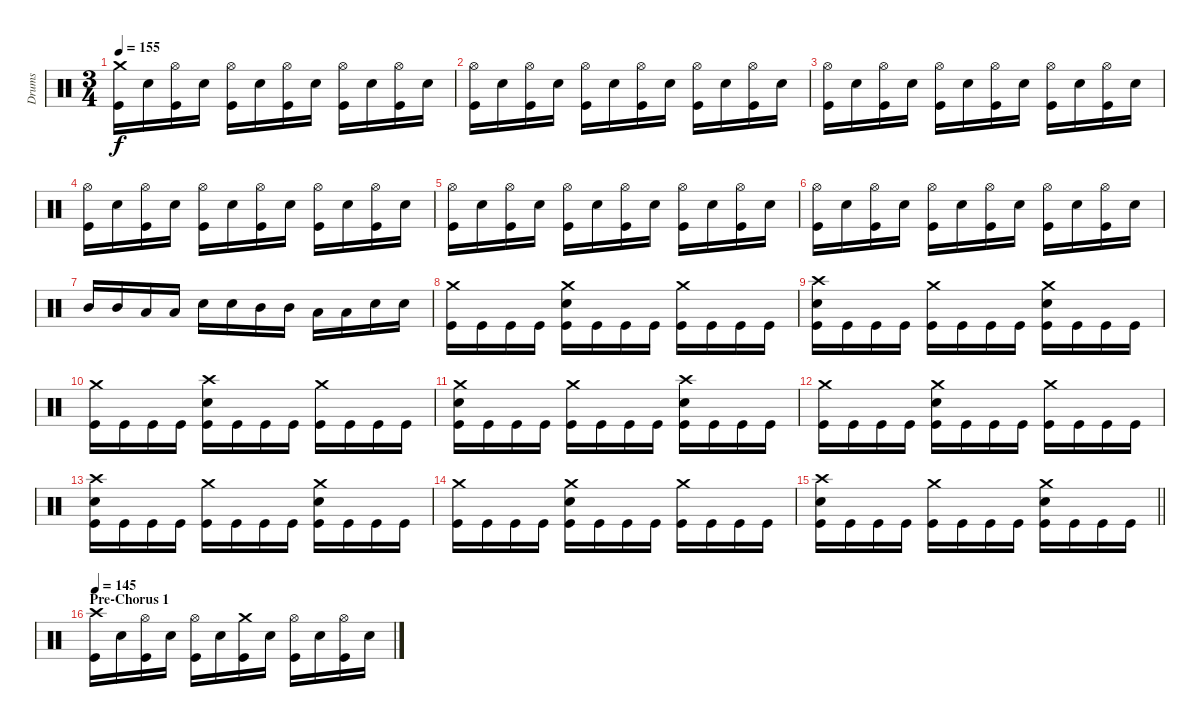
\track ("Drums" "Drums") {instrument percussion}
\staff {score}
\articulation defaults
\ts (3 4)
\tempo 155
\clef neutral
\ks c
("Crash medium (hit)" "Kick (hit)").16{dy f} "Snare (hit) 2".16 ("Hi-Hat (open)" "Kick (hit)").16 "Snare (hit) 2".16 ("Hi-Hat (open)" "Kick (hit)").16 "Snare (hit) 2".16 ("Hi-Hat (open)" "Kick (hit)").16 "Snare (hit) 2".16 ("Hi-Hat (open)" "Kick (hit)").16 "Snare (hit) 2".16 ("Hi-Hat (open)" "Kick (hit)").16 "Snare (hit) 2".16 |
("Hi-Hat (open)" "Kick (hit)").16 "Snare (hit) 2".16 ("Hi-Hat (open)" "Kick (hit)").16 "Snare (hit) 2".16 ("Hi-Hat (open)" "Kick (hit)").16 "Snare (hit) 2".16 ("Hi-Hat (open)" "Kick (hit)").16 "Snare (hit) 2".16 ("Hi-Hat (open)" "Kick (hit)").16 "Snare (hit) 2".16 ("Hi-Hat (open)" "Kick (hit)").16 "Snare (hit) 2".16 |
("Hi-Hat (open)" "Kick (hit)").16 "Snare (hit) 2".16 ("Hi-Hat (open)" "Kick (hit)").16 "Snare (hit) 2".16 ("Hi-Hat (open)" "Kick (hit)").16 "Snare (hit) 2".16 ("Hi-Hat (open)" "Kick (hit)").16 "Snare (hit) 2".16 ("Hi-Hat (open)" "Kick (hit)").16 "Snare (hit) 2".16 ("Hi-Hat (open)" "Kick (hit)").16 "Snare (hit) 2".16 |
("Hi-Hat (open)" "Kick (hit)").16 "Snare (hit) 2".16 ("Hi-Hat (open)" "Kick (hit)").16 "Snare (hit) 2".16 ("Hi-Hat (open)" "Kick (hit)").16 "Snare (hit) 2".16 ("Hi-Hat (open)" "Kick (hit)").16 "Snare (hit) 2".16 ("Hi-Hat (open)" "Kick (hit)").16 "Snare (hit) 2".16 ("Hi-Hat (open)" "Kick (hit)").16 "Snare (hit) 2".16 |
("Hi-Hat (open)" "Kick (hit)").16 "Snare (hit) 2".16 ("Hi-Hat (open)" "Kick (hit)").16 "Snare (hit) 2".16 ("Hi-Hat (open)" "Kick (hit)").16 "Snare (hit) 2".16 ("Hi-Hat (open)" "Kick (hit)").16 "Snare (hit) 2".16 ("Hi-Hat (open)" "Kick (hit)").16 "Snare (hit) 2".16 ("Hi-Hat (open)" "Kick (hit)").16 "Snare (hit) 2".16 |
("Hi-Hat (open)" "Kick (hit)").16 "Snare (hit) 2".16 ("Hi-Hat (open)" "Kick (hit)").16 "Snare (hit) 2".16 ("Hi-Hat (open)" "Kick (hit)").16 "Snare (hit) 2".16 ("Hi-Hat (open)" "Kick (hit)").16 "Snare (hit) 2".16 ("Hi-Hat (open)" "Kick (hit)").16 "Snare (hit) 2".16 ("Hi-Hat (open)" "Kick (hit)").16 "Snare (hit) 2".16 |
"Mid Tom (hit)".16 "Mid Tom (hit)".16 "Low Tom (hit)".16 "Low Tom (hit)".16 "Snare (hit) 2".16 "Snare (hit) 2".16 "Mid Tom (hit)".16 "Mid Tom (hit)".16 "Low Tom (hit)".16 "Low Tom (hit)".16 "Snare (hit) 2".16 "Snare (hit) 2".16 |
("Crash medium (hit)" "Kick (hit)").16 "Kick (hit)".16 "Kick (hit)".16 "Kick (hit)".16 ("Crash medium (hit)" "Snare (hit) 2" "Kick (hit)").16 "Kick (hit)".16 "Kick (hit)".16 "Kick (hit)".16 ("Crash medium (hit)" "Kick (hit)").16 "Kick (hit)".16 "Kick (hit)".16 "Kick (hit)".16 |
("Crash high (hit)" "Snare (hit) 2" "Kick (hit)").16 "Kick (hit)".16 "Kick (hit)".16 "Kick (hit)".16 ("Crash medium (hit)" "Kick (hit)").16 "Kick (hit)".16 "Kick (hit)".16 "Kick (hit)".16 ("Crash medium (hit)" "Snare (hit) 2" "Kick (hit)").16 "Kick (hit)".16 "Kick (hit)".16 "Kick (hit)".16 |
("Crash medium (hit)" "Kick (hit)").16 "Kick (hit)".16 "Kick (hit)".16 "Kick (hit)".16 ("Crash high (hit)" "Snare (hit) 2" "Kick (hit)").16 "Kick (hit)".16 "Kick (hit)".16 "Kick (hit)".16 ("Crash medium (hit)" "Kick (hit)").16 "Kick (hit)".16 "Kick (hit)".16 "Kick (hit)".16 |
("Crash medium (hit)" "Snare (hit) 2" "Kick (hit)").16 "Kick (hit)".16 "Kick (hit)".16 "Kick (hit)".16 ("Crash medium (hit)" "Kick (hit)").16 "Kick (hit)".16 "Kick (hit)".16 "Kick (hit)".16 ("Crash high (hit)" "Snare (hit) 2" "Kick (hit)").16 "Kick (hit)".16 "Kick (hit)".16 "Kick (hit)".16 |
("Crash medium (hit)" "Kick (hit)").16 "Kick (hit)".16 "Kick (hit)".16 "Kick (hit)".16 ("Crash medium (hit)" "Snare (hit) 2" "Kick (hit)").16 "Kick (hit)".16 "Kick (hit)".16 "Kick (hit)".16 ("Crash medium (hit)" "Kick (hit)").16 "Kick (hit)".16 "Kick (hit)".16 "Kick (hit)".16 |
("Crash high (hit)" "Snare (hit) 2" "Kick (hit)").16 "Kick (hit)".16 "Kick (hit)".16 "Kick (hit)".16 ("Crash medium (hit)" "Kick (hit)").16 "Kick (hit)".16 "Kick (hit)".16 "Kick (hit)".16 ("Crash medium (hit)" "Snare (hit) 2" "Kick (hit)").16 "Kick (hit)".16 "Kick (hit)".16 "Kick (hit)".16 |
("Crash medium (hit)" "Kick (hit)").16 "Kick (hit)".16 "Kick (hit)".16 "Kick (hit)".16 ("Crash medium (hit)" "Snare (hit) 2" "Kick (hit)").16 "Kick (hit)".16 "Kick (hit)".16 "Kick (hit)".16 ("Crash medium (hit)" "Kick (hit)").16 "Kick (hit)".16 "Kick (hit)".16 "Kick (hit)".16 |
\barLineRight lightlight
("Crash high (hit)" "Snare (hit) 2" "Kick (hit)").16 "Kick (hit)".16 "Kick (hit)".16 "Kick (hit)".16 ("Crash medium (hit)" "Kick (hit)").16 "Kick (hit)".16 "Kick (hit)".16 "Kick (hit)".16 ("Crash medium (hit)" "Snare (hit) 2" "Kick (hit)").16 "Kick (hit)".16 "Kick (hit)".16 "Kick (hit)".16 |
\section ("" "Pre-Chorus 1")
\tempo 145
("Crash high (hit)" "Kick (hit)").16 "Snare (hit) 2".16 ("Hi-Hat (open)" "Kick (hit)").16 "Snare (hit) 2".16 ("Hi-Hat (open)" "Kick (hit)").16 "Snare (hit) 2".16 ("Crash medium (hit)" "Kick (hit)").16 "Snare (hit) 2".16 ("Hi-Hat (open)" "Kick (hit)").16 "Snare (hit) 2".16 ("Hi-Hat (open)" "Kick (hit)").16 "Snare (hit) 2".16
